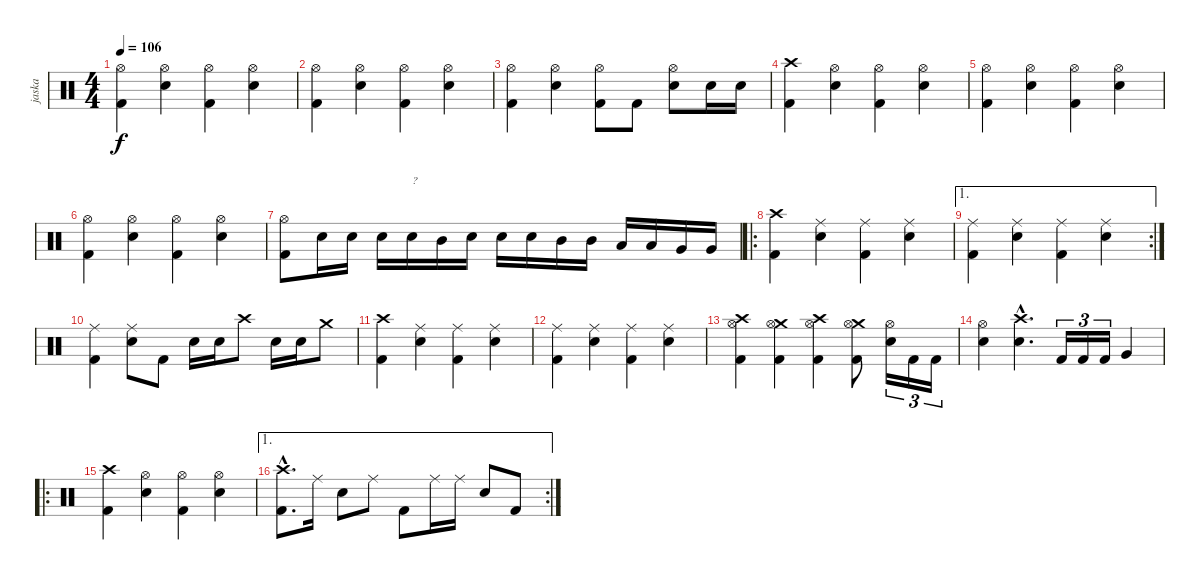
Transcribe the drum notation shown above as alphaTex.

\track ("jaska" "jaska") {instrument percussion}
\staff {score}
\articulation defaults
\ts (4 4)
\tempo 106
\clef neutral
\ks c
("Kick (hit) 2" "Hi-Hat (open)").4{dy f} ("Hi-Hat (open)" "Snare (hit) 2").4 ("Kick (hit) 2" "Hi-Hat (open)").4 ("Hi-Hat (open)" "Snare (hit) 2").4 |
("Kick (hit) 2" "Hi-Hat (open)").4 ("Hi-Hat (open)" "Snare (hit) 2").4 ("Kick (hit) 2" "Hi-Hat (open)").4 ("Hi-Hat (open)" "Snare (hit) 2").4 |
("Kick (hit) 2" "Hi-Hat (open)").4 ("Hi-Hat (open)" "Snare (hit) 2").4 ("Kick (hit) 2" "Hi-Hat (open)").8 "Kick (hit) 2".8 ("Hi-Hat (open)" "Snare (hit) 2").8 "Snare (hit) 2".16 "Snare (hit) 2".16 |
("Kick (hit) 2" "Crash high (hit)").4 ("Hi-Hat (open)" "Snare (hit) 2").4 ("Kick (hit) 2" "Hi-Hat (open)").4 ("Hi-Hat (open)" "Snare (hit) 2").4 |
("Kick (hit) 2" "Hi-Hat (open)").4 ("Hi-Hat (open)" "Snare (hit) 2").4 ("Kick (hit) 2" "Hi-Hat (open)").4 ("Hi-Hat (open)" "Snare (hit) 2").4 |
("Kick (hit) 2" "Hi-Hat (open)").4 ("Hi-Hat (open)" "Snare (hit) 2").4 ("Kick (hit) 2" "Hi-Hat (open)").4 ("Hi-Hat (open)" "Snare (hit) 2").4 |
("Kick (hit) 2" "Hi-Hat (open)").8 "Snare (hit) 2".16 "Snare (hit) 2".16 "Snare (hit) 2".16 "Snare (hit) 2".16{txt "?"} "Mid Tom (hit)".16 "Snare (hit) 2".16 "Snare (hit) 2".16 "Snare (hit) 2".16 "Mid Tom (hit)".16 "Mid Tom (hit)".16 "Low Tom (hit)".16 "Low Tom (hit)".16 "Very Low Tom (hit)".16 "Very Low Tom (hit)".16 |
\ro
("Kick (hit) 2" "Crash high (hit)").4 ("Ride (middle)" "Snare (hit) 2").4 ("Kick (hit) 2" "Ride (middle)").4 ("Ride (middle)" "Snare (hit) 2").4 |
\ae 1
\rc 2
("Kick (hit) 2" "Ride (middle)").4 ("Ride (middle)" "Snare (hit) 2").4 ("Kick (hit) 2" "Ride (middle)").4 ("Ride (middle)" "Snare (hit) 2").4 |
("Kick (hit) 2" "Ride (middle)").4 ("Ride (middle)" "Snare (hit) 2").8 "Kick (hit) 2".8 "Snare (hit) 2".16 "Snare (hit) 2".16 "Crash high (hit)".8 "Snare (hit) 2".16 "Snare (hit) 2".16 "Crash medium (hit)".8 |
("Kick (hit) 2" "Crash high (hit)").4 ("Ride (middle)" "Snare (hit) 2").4 ("Kick (hit) 2" "Ride (middle)").4 ("Ride (middle)" "Snare (hit) 2").4 |
("Kick (hit) 2" "Ride (middle)").4 ("Ride (middle)" "Snare (hit) 2").4 ("Kick (hit) 2" "Ride (middle)").4 ("Ride (middle)" "Snare (hit) 2").4 |
("Kick (hit) 2" "Crash high (hit)" "Hi-Hat (open)").4 ("Kick (hit) 2" "Crash medium (hit)" "Hi-Hat (open)").4 ("Kick (hit) 2" "Crash high (hit)" "Hi-Hat (open)").4 ("Kick (hit) 2" "Crash medium (hit)" "Hi-Hat (open)").8 ("Hi-Hat (open)" "Snare (hit) 2").16{tu (3 2)} "Kick (hit) 2".16{tu (3 2)} "Kick (hit) 2".16{tu (3 2)} |
("Hi-Hat (open)" "Snare (hit) 2").4 ("Crash high (hit)"{hac} "Snare (hit) 2"{hac}).4{d} "Kick (hit) 2".16{tu (3 2)} "Kick (hit) 2".16{tu (3 2)} "Kick (hit) 2".16{tu (3 2)} "Very Low Tom (hit)".4 |
\ro
("Kick (hit) 2" "Crash high (hit)").4 ("Hi-Hat (open)" "Snare (hit) 2").4 ("Kick (hit) 2" "Hi-Hat (open)").4 ("Hi-Hat (open)" "Snare (hit) 2").4 |
\ae 1
\rc 2
("Kick (hit) 2"{hac} "Crash high (hit)"{hac}).8{d} "Ride (middle)".16 "Snare (hit) 2".8 "Ride (middle)".8 "Kick (hit) 2".8 "Ride (middle)".16 "Ride (middle)".16 "Snare (hit) 2".8 "Kick (hit) 2".8
